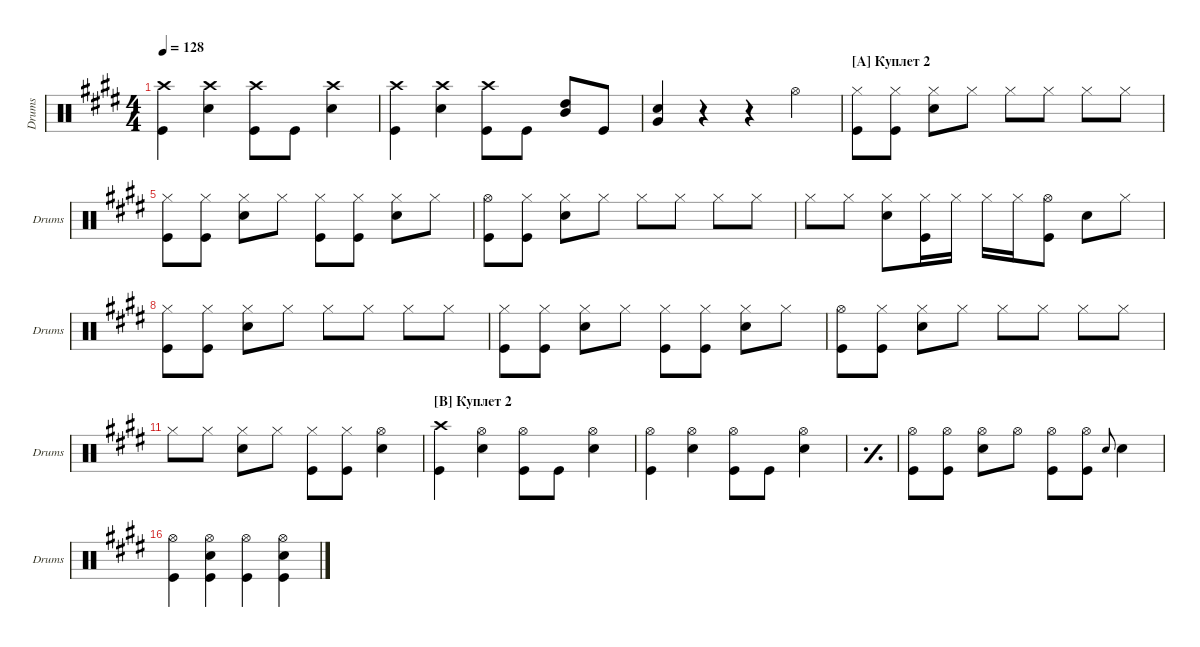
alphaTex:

\defaultSystemsLayout 4
\hideDynamics
\bracketExtendMode groupsimilarinstruments
\singleTrackTrackNamePolicy allsystems
\multiTrackTrackNamePolicy allsystems
\otherSystemsTrackNameOrientation horizontal
\defaultBarNumberDisplay FirstOfSystem
\track ("Drumkit" "Drums") {instrument percussion}
\staff {score}
\articulation defaults
\ts (4 4)
\tempo 128
\clef neutral
\ks e
("Kick (hit)" "Crash high (hit)").4{dy mf} ("Snare (hit) 2" "Crash high (hit)").4 ("Kick (hit)" "Crash high (hit)").8 "Kick (hit)".8 ("Snare (hit) 2" "Crash high (hit)").4 |
("Kick (hit)" "Crash high (hit)").4 ("Snare (hit) 2" "Crash high (hit)").4 ("Kick (hit)" "Crash high (hit)").8 "Kick (hit)".8 ("High Tom (hit)" "Mid Tom (hit)").8 "Kick (hit)".8 |
("Snare (hit) 2" "Very Low Tom (hit)").4 r.4 r.4 "Hi-Hat (open)".4 |
\section ("A" "Куплет 2")
("Hi-Hat (closed)" "Kick (hit)").8 ("Hi-Hat (closed)" "Kick (hit)").8 ("Hi-Hat (closed)" "Snare (hit) 2").8 "Hi-Hat (closed)".8 "Hi-Hat (closed)".8 "Hi-Hat (closed)".8 "Hi-Hat (closed)".8 "Hi-Hat (closed)".8 |
("Hi-Hat (closed)" "Kick (hit)").8 ("Hi-Hat (closed)" "Kick (hit)").8 ("Hi-Hat (closed)" "Snare (hit) 2").8 "Hi-Hat (closed)".8 ("Hi-Hat (closed)" "Kick (hit)").8 ("Hi-Hat (closed)" "Kick (hit)").8 ("Hi-Hat (closed)" "Snare (hit) 2").8 "Hi-Hat (closed)".8 |
("Hi-Hat (open)" "Kick (hit)").8 ("Hi-Hat (closed)" "Kick (hit)").8 ("Hi-Hat (closed)" "Snare (hit) 2").8 "Hi-Hat (closed)".8 "Hi-Hat (closed)".8 "Hi-Hat (closed)".8 "Hi-Hat (closed)".8 "Hi-Hat (closed)".8 |
"Hi-Hat (closed)".8 "Hi-Hat (closed)".8 ("Hi-Hat (closed)" "Snare (hit) 2").8 ("Hi-Hat (closed)" "Kick (hit)").16 "Hi-Hat (closed)".16 "Hi-Hat (closed)".16 "Hi-Hat (closed)".16 ("Kick (hit)" "Hi-Hat (open)").8 "Snare (hit) 2".8 "Hi-Hat (closed)".8 |
("Hi-Hat (closed)" "Kick (hit)").8 ("Hi-Hat (closed)" "Kick (hit)").8 ("Hi-Hat (closed)" "Snare (hit) 2").8 "Hi-Hat (closed)".8 "Hi-Hat (closed)".8 "Hi-Hat (closed)".8 "Hi-Hat (closed)".8 "Hi-Hat (closed)".8 |
("Hi-Hat (closed)" "Kick (hit)").8 ("Hi-Hat (closed)" "Kick (hit)").8 ("Hi-Hat (closed)" "Snare (hit) 2").8 "Hi-Hat (closed)".8 ("Hi-Hat (closed)" "Kick (hit)").8 ("Hi-Hat (closed)" "Kick (hit)").8 ("Hi-Hat (closed)" "Snare (hit) 2").8 "Hi-Hat (closed)".8 |
("Hi-Hat (open)" "Kick (hit)").8 ("Hi-Hat (closed)" "Kick (hit)").8 ("Hi-Hat (closed)" "Snare (hit) 2").8 "Hi-Hat (closed)".8 "Hi-Hat (closed)".8 "Hi-Hat (closed)".8 "Hi-Hat (closed)".8 "Hi-Hat (closed)".8 |
"Hi-Hat (closed)".8 "Hi-Hat (closed)".8 ("Hi-Hat (closed)" "Snare (hit) 2").8 "Hi-Hat (closed)".8 ("Hi-Hat (closed)" "Kick (hit)").8 ("Hi-Hat (closed)" "Kick (hit)").8 ("Snare (hit) 2" "Hi-Hat (open)").4 |
\section ("B" "Куплет 2")
("Crash high (hit)" "Kick (hit)").4 ("Hi-Hat (open)" "Snare (hit) 2").4 ("Hi-Hat (open)" "Kick (hit)").8 "Kick (hit)".8 ("Hi-Hat (open)" "Snare (hit) 2").4 |
("Kick (hit)" "Hi-Hat (open)").4 ("Hi-Hat (open)" "Snare (hit) 2").4 ("Hi-Hat (open)" "Kick (hit)").8 "Kick (hit)".8 ("Hi-Hat (open)" "Snare (hit) 2").4 |
\simile simple
|
\simile none
("Hi-Hat (open)" "Kick (hit)").8 ("Hi-Hat (open)" "Kick (hit)").8 ("Hi-Hat (open)" "Snare (hit) 2").8 "Hi-Hat (open)".8 ("Hi-Hat (open)" "Kick (hit)").8 ("Hi-Hat (open)" "Kick (hit)").8 "Snare (hit) 2".8{gr onbeat} "Snare (hit) 2".4 |
("Hi-Hat (open)" "Kick (hit)").4 ("Hi-Hat (open)" "Kick (hit)" "Snare (hit) 2").4 ("Hi-Hat (open)" "Kick (hit)").4 ("Hi-Hat (open)" "Kick (hit)" "Snare (hit) 2").4
